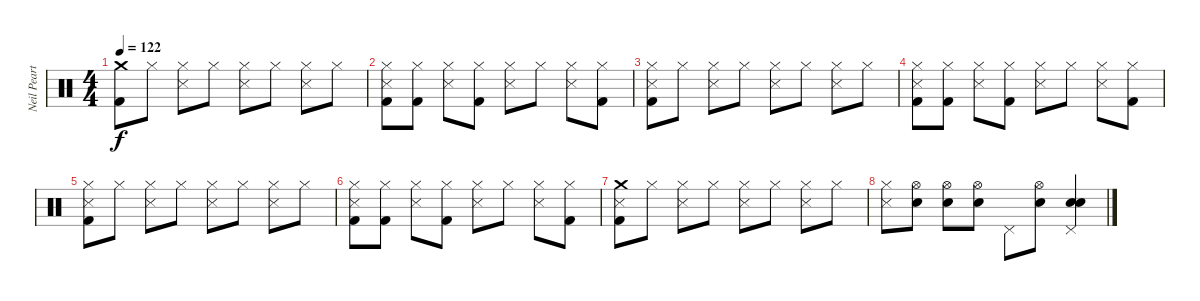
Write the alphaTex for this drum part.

\track ("Neil Peart" "Neil Peart") {instrument percussion}
\staff {score}
\articulation defaults
\ts (4 4)
\tempo 122
\clef neutral
\ks c
("Crash medium (hit)" "Kick (hit) 2").8{dy f} "Hi-Hat (closed)".8 ("Snare (side stick) 3" "Hi-Hat (closed)").8 "Hi-Hat (closed)".8 ("Hi-Hat (closed)" "Snare (side stick) 3").8 "Hi-Hat (closed)".8 ("Snare (side stick) 3" "Hi-Hat (closed)").8 "Hi-Hat (closed)".8 |
("Snare (side stick) 3" "Kick (hit) 2" "Hi-Hat (closed)").8 ("Kick (hit) 2" "Hi-Hat (closed)").8 ("Snare (side stick) 3" "Hi-Hat (closed)").8 ("Kick (hit) 2" "Hi-Hat (closed)").8 ("Snare (side stick) 3" "Hi-Hat (closed)").8 "Hi-Hat (closed)".8 ("Hi-Hat (closed)" "Snare (side stick) 3").8 ("Kick (hit) 2" "Hi-Hat (closed)").8 |
("Hi-Hat (closed)" "Kick (hit) 2" "Snare (side stick) 3").8 "Hi-Hat (closed)".8 ("Snare (side stick) 3" "Hi-Hat (closed)").8 "Hi-Hat (closed)".8 ("Hi-Hat (closed)" "Snare (side stick) 3").8 "Hi-Hat (closed)".8 ("Snare (side stick) 3" "Hi-Hat (closed)").8 "Hi-Hat (closed)".8 |
("Hi-Hat (closed)" "Kick (hit) 2" "Snare (side stick) 3").8 ("Kick (hit) 2" "Hi-Hat (closed)").8 ("Snare (side stick) 3" "Hi-Hat (closed)").8 ("Hi-Hat (closed)" "Kick (hit) 2").8 ("Snare (side stick) 3" "Hi-Hat (closed)").8 "Hi-Hat (closed)".8 ("Snare (side stick) 3" "Hi-Hat (closed)").8 ("Kick (hit) 2" "Hi-Hat (closed)").8 |
("Hi-Hat (closed)" "Snare (side stick) 3" "Kick (hit) 2").8 "Hi-Hat (closed)".8 ("Snare (side stick) 3" "Hi-Hat (closed)").8 "Hi-Hat (closed)".8 ("Snare (side stick) 3" "Hi-Hat (closed)").8 "Hi-Hat (closed)".8 ("Snare (side stick) 3" "Hi-Hat (closed)").8 "Hi-Hat (closed)".8 |
("Kick (hit) 2" "Hi-Hat (closed)" "Snare (side stick) 3").8 ("Kick (hit) 2" "Hi-Hat (closed)").8 ("Hi-Hat (closed)" "Snare (side stick) 3").8 ("Hi-Hat (closed)" "Kick (hit) 2").8 ("Snare (side stick) 3" "Hi-Hat (closed)").8 "Hi-Hat (closed)".8 ("Snare (side stick) 3" "Hi-Hat (closed)").8 ("Hi-Hat (closed)" "Kick (hit) 2").8 |
("Crash medium (hit)" "Snare (side stick) 3" "Kick (hit) 2").8 "Hi-Hat (closed)".8 ("Hi-Hat (closed)" "Snare (side stick) 3").8 "Hi-Hat (closed)".8 ("Snare (side stick) 3" "Hi-Hat (closed)").8 "Hi-Hat (closed)".8 ("Snare (side stick) 3" "Hi-Hat (closed)").8 "Hi-Hat (closed)".8 |
("Snare (side stick) 3" "Hi-Hat (closed)").8 ("Hi-Hat (open)" "Snare (hit) 2").8 ("Snare (hit) 2" "Hi-Hat (open)").8 ("Snare (hit) 2" "Hi-Hat (open)").8 "Pedal Hi-Hat (hit)".8 ("Snare (hit) 2" "Hi-Hat (open)").8 ("Snare (hit) 2" "Snare (hit) 2" "Pedal Hi-Hat (hit)").4
